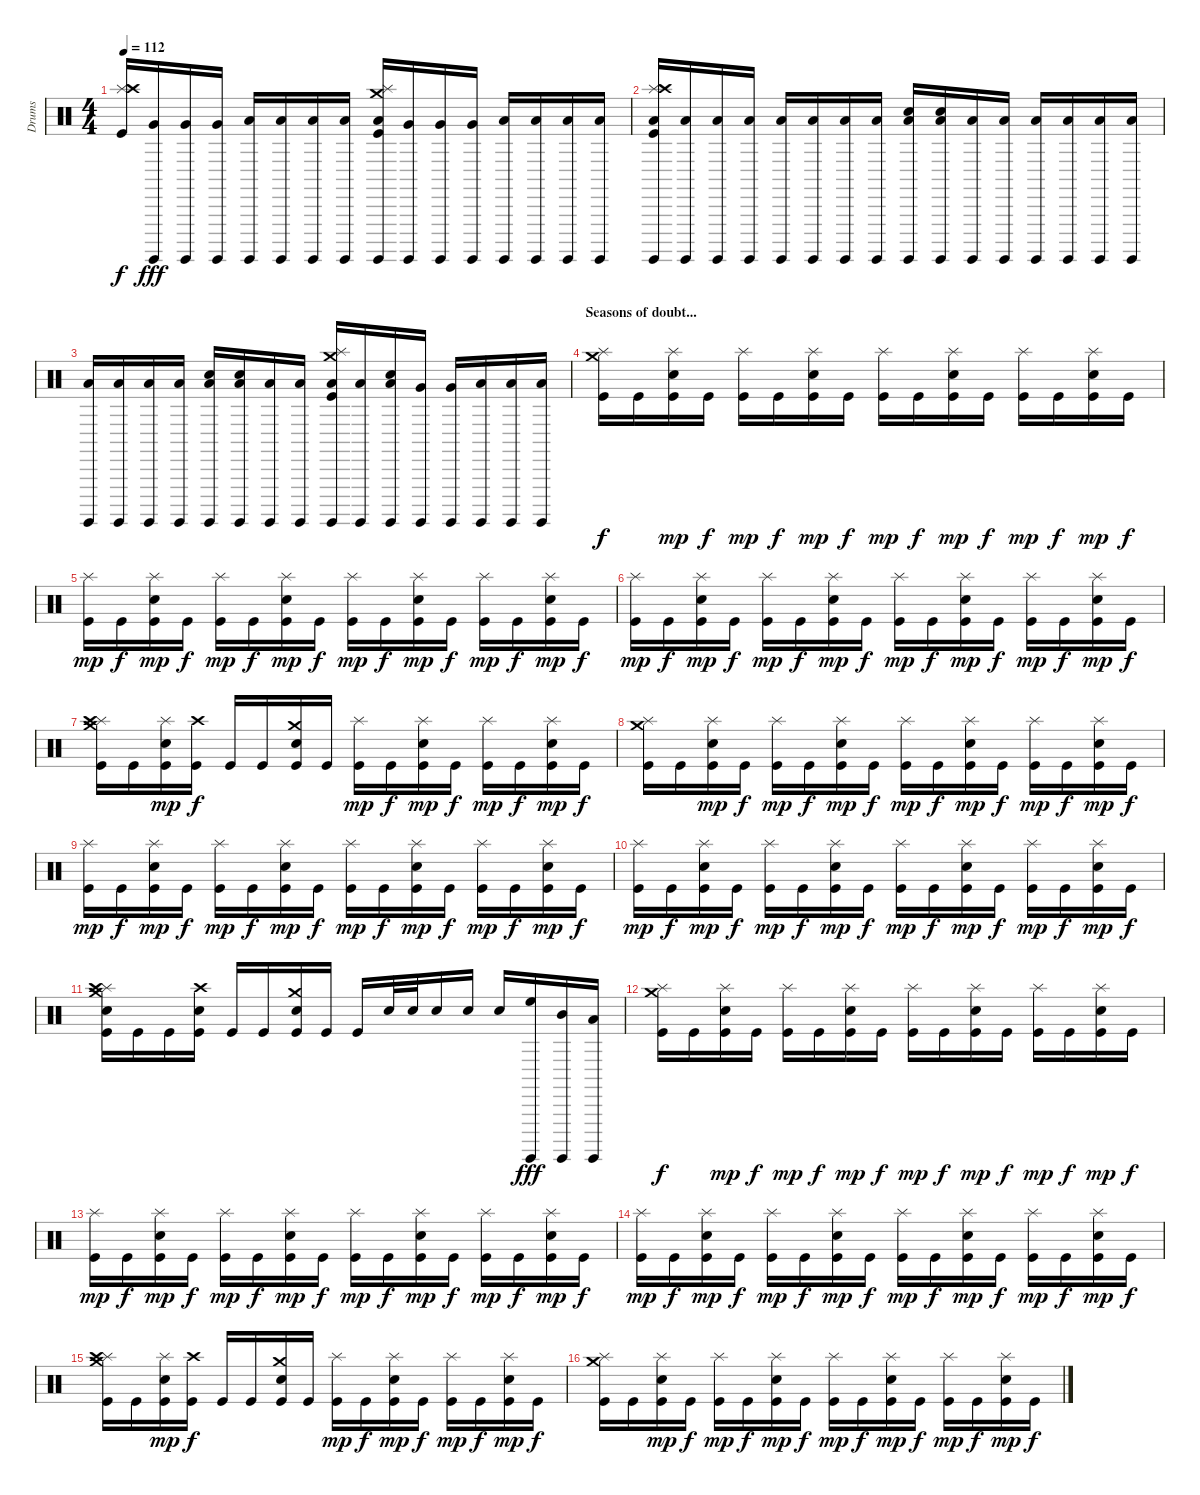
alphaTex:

\track ("Drums" "Drums") {instrument percussion}
\staff {score}
\articulation defaults
\ts (4 4)
\tempo 112
\clef neutral
\ks c
("Splash (hit)" "Crash high (hit)" "Kick (hit)").16{dy f} ("Surdo (hit)" "Very Low Tom (hit)").16{dy fff} ("Surdo (hit)" "Very Low Tom (hit)").16 ("Surdo (hit)" "Very Low Tom (hit)").16 ("Surdo (hit)" "Low Floor Tom (hit)").16 ("Surdo (hit)" "Low Floor Tom (hit)").16 ("Surdo (hit)" "Low Floor Tom (hit)").16 ("Surdo (hit)" "Low Floor Tom (hit)").16 ("Crash medium (hit)" "Splash (hit)" "Surdo (hit)" "Low Floor Tom (hit)" "Kick (hit)").16 ("Surdo (hit)" "Very Low Tom (hit)").16 ("Surdo (hit)" "Very Low Tom (hit)").16 ("Surdo (hit)" "Very Low Tom (hit)").16 ("Surdo (hit)" "Low Floor Tom (hit)").16 ("Surdo (hit)" "Low Floor Tom (hit)").16 ("Surdo (hit)" "Low Floor Tom (hit)").16 ("Surdo (hit)" "Low Floor Tom (hit)").16 |
("Splash (hit)" "Crash high (hit)" "Low Floor Tom (hit)" "Surdo (hit)" "Kick (hit)").16 ("Surdo (hit)" "Low Floor Tom (hit)").16 ("Surdo (hit)" "Low Floor Tom (hit)").16 ("Surdo (hit)" "Low Floor Tom (hit)").16 ("Surdo (hit)" "Low Floor Tom (hit)").16 ("Surdo (hit)" "Low Floor Tom (hit)").16 ("Surdo (hit)" "Low Floor Tom (hit)").16 ("Surdo (hit)" "Low Floor Tom (hit)").16 ("Surdo (hit)" "Low Floor Tom (hit)" "Electric Snare (hit)").16 ("Surdo (hit)" "Low Floor Tom (hit)" "Electric Snare (hit)").16 ("Surdo (hit)" "Low Floor Tom (hit)").16 ("Surdo (hit)" "Low Floor Tom (hit)").16 ("Surdo (hit)" "Low Floor Tom (hit)").16 ("Surdo (hit)" "Low Floor Tom (hit)").16 ("Surdo (hit)" "Low Floor Tom (hit)").16 ("Surdo (hit)" "Low Floor Tom (hit)").16 |
("Surdo (hit)" "Low Floor Tom (hit)").16 ("Surdo (hit)" "Low Floor Tom (hit)").16 ("Surdo (hit)" "Low Floor Tom (hit)").16 ("Surdo (hit)" "Low Floor Tom (hit)").16 ("Surdo (hit)" "Low Floor Tom (hit)" "Electric Snare (hit)").16 ("Surdo (hit)" "Low Floor Tom (hit)" "Electric Snare (hit)").16 ("Surdo (hit)" "Low Floor Tom (hit)").16 ("Surdo (hit)" "Low Floor Tom (hit)").16 ("Crash medium (hit)" "Splash (hit)" "Surdo (hit)" "Low Floor Tom (hit)" "Kick (hit)").16 ("Surdo (hit)" "Low Floor Tom (hit)").16 ("Surdo (hit)" "Low Floor Tom (hit)" "Electric Snare (hit)").16 ("Surdo (hit)" "Very Low Tom (hit)").16 ("Surdo (hit)" "Very Low Tom (hit)").16 ("Surdo (hit)" "Low Floor Tom (hit)").16 ("Surdo (hit)" "Low Floor Tom (hit)").16 ("Surdo (hit)" "Low Floor Tom (hit)").16 |
\section ("" "Seasons of doubt...")
("Crash medium (hit)" "Splash (hit)" "Kick (hit)").16{dy f} "Kick (hit)".16 ("Splash (hit)" "Electric Snare (hit)" "Kick (hit)").16{dy mp} "Kick (hit)".16{dy f} ("Splash (hit)" "Kick (hit)").16{dy mp} "Kick (hit)".16{dy f} ("Splash (hit)" "Electric Snare (hit)" "Kick (hit)").16{dy mp} "Kick (hit)".16{dy f} ("Splash (hit)" "Kick (hit)").16{dy mp} "Kick (hit)".16{dy f} ("Splash (hit)" "Electric Snare (hit)" "Kick (hit)").16{dy mp} "Kick (hit)".16{dy f} ("Splash (hit)" "Kick (hit)").16{dy mp} "Kick (hit)".16{dy f} ("Splash (hit)" "Electric Snare (hit)" "Kick (hit)").16{dy mp} "Kick (hit)".16{dy f} |
("Splash (hit)" "Kick (hit)").16{dy mp} "Kick (hit)".16{dy f} ("Splash (hit)" "Electric Snare (hit)" "Kick (hit)").16{dy mp} "Kick (hit)".16{dy f} ("Splash (hit)" "Kick (hit)").16{dy mp} "Kick (hit)".16{dy f} ("Splash (hit)" "Electric Snare (hit)" "Kick (hit)").16{dy mp} "Kick (hit)".16{dy f} ("Splash (hit)" "Kick (hit)").16{dy mp} "Kick (hit)".16{dy f} ("Splash (hit)" "Electric Snare (hit)" "Kick (hit)").16{dy mp} "Kick (hit)".16{dy f} ("Splash (hit)" "Kick (hit)").16{dy mp} "Kick (hit)".16{dy f} ("Splash (hit)" "Electric Snare (hit)" "Kick (hit)").16{dy mp} "Kick (hit)".16{dy f} |
("Splash (hit)" "Kick (hit)").16{dy mp} "Kick (hit)".16{dy f} ("Splash (hit)" "Electric Snare (hit)" "Kick (hit)").16{dy mp} "Kick (hit)".16{dy f} ("Splash (hit)" "Kick (hit)").16{dy mp} "Kick (hit)".16{dy f} ("Splash (hit)" "Electric Snare (hit)" "Kick (hit)").16{dy mp} "Kick (hit)".16{dy f} ("Splash (hit)" "Kick (hit)").16{dy mp} "Kick (hit)".16{dy f} ("Splash (hit)" "Electric Snare (hit)" "Kick (hit)").16{dy mp} "Kick (hit)".16{dy f} ("Splash (hit)" "Kick (hit)").16{dy mp} "Kick (hit)".16{dy f} ("Splash (hit)" "Electric Snare (hit)" "Kick (hit)").16{dy mp} "Kick (hit)".16{dy f} |
("Crash medium (hit)" "Splash (hit)" "Crash high (hit)" "Kick (hit)").16 "Kick (hit)".16 ("Splash (hit)" "Electric Snare (hit)" "Kick (hit)").16{dy mp} ("Crash high (hit)" "Kick (hit)").16{dy f} "Kick (hit)".16 "Kick (hit)".16 ("Crash medium (hit)" "Electric Snare (hit)" "Kick (hit)").16 "Kick (hit)".16 ("Splash (hit)" "Kick (hit)").16{dy mp} "Kick (hit)".16{dy f} ("Splash (hit)" "Electric Snare (hit)" "Kick (hit)").16{dy mp} "Kick (hit)".16{dy f} ("Splash (hit)" "Kick (hit)").16{dy mp} "Kick (hit)".16{dy f} ("Splash (hit)" "Electric Snare (hit)" "Kick (hit)").16{dy mp} "Kick (hit)".16{dy f} |
("Crash medium (hit)" "Splash (hit)" "Kick (hit)").16 "Kick (hit)".16 ("Splash (hit)" "Electric Snare (hit)" "Kick (hit)").16{dy mp} "Kick (hit)".16{dy f} ("Splash (hit)" "Kick (hit)").16{dy mp} "Kick (hit)".16{dy f} ("Splash (hit)" "Electric Snare (hit)" "Kick (hit)").16{dy mp} "Kick (hit)".16{dy f} ("Splash (hit)" "Kick (hit)").16{dy mp} "Kick (hit)".16{dy f} ("Splash (hit)" "Electric Snare (hit)" "Kick (hit)").16{dy mp} "Kick (hit)".16{dy f} ("Splash (hit)" "Kick (hit)").16{dy mp} "Kick (hit)".16{dy f} ("Splash (hit)" "Electric Snare (hit)" "Kick (hit)").16{dy mp} "Kick (hit)".16{dy f} |
("Splash (hit)" "Kick (hit)").16{dy mp} "Kick (hit)".16{dy f} ("Splash (hit)" "Electric Snare (hit)" "Kick (hit)").16{dy mp} "Kick (hit)".16{dy f} ("Splash (hit)" "Kick (hit)").16{dy mp} "Kick (hit)".16{dy f} ("Splash (hit)" "Electric Snare (hit)" "Kick (hit)").16{dy mp} "Kick (hit)".16{dy f} ("Splash (hit)" "Kick (hit)").16{dy mp} "Kick (hit)".16{dy f} ("Splash (hit)" "Electric Snare (hit)" "Kick (hit)").16{dy mp} "Kick (hit)".16{dy f} ("Splash (hit)" "Kick (hit)").16{dy mp} "Kick (hit)".16{dy f} ("Splash (hit)" "Electric Snare (hit)" "Kick (hit)").16{dy mp} "Kick (hit)".16{dy f} |
("Splash (hit)" "Kick (hit)").16{dy mp} "Kick (hit)".16{dy f} ("Splash (hit)" "Electric Snare (hit)" "Kick (hit)").16{dy mp} "Kick (hit)".16{dy f} ("Splash (hit)" "Kick (hit)").16{dy mp} "Kick (hit)".16{dy f} ("Splash (hit)" "Electric Snare (hit)" "Kick (hit)").16{dy mp} "Kick (hit)".16{dy f} ("Splash (hit)" "Kick (hit)").16{dy mp} "Kick (hit)".16{dy f} ("Splash (hit)" "Electric Snare (hit)" "Kick (hit)").16{dy mp} "Kick (hit)".16{dy f} ("Splash (hit)" "Kick (hit)").16{dy mp} "Kick (hit)".16{dy f} ("Splash (hit)" "Electric Snare (hit)" "Kick (hit)").16{dy mp} "Kick (hit)".16{dy f} |
("Crash medium (hit)" "Splash (hit)" "Crash high (hit)" "Electric Snare (hit)" "Kick (hit)").16 "Kick (hit)".16 "Kick (hit)".16 ("Crash high (hit)" "Electric Snare (hit)" "Kick (hit)").16 "Kick (hit)".16 "Kick (hit)".16 ("Crash medium (hit)" "Electric Snare (hit)" "Kick (hit)").16 "Kick (hit)".16 "Kick (hit)".16 "Electric Snare (hit)".32 "Electric Snare (hit)".32 "Electric Snare (hit)".16 "Electric Snare (hit)".16 "Electric Snare (hit)".16 ("Surdo (hit)" "High Floor Tom (hit)").16{dy fff} ("Surdo (hit)" "Mid Tom (hit)").16 ("Surdo (hit)" "Low Tom (hit)").16 |
("Crash medium (hit)" "Splash (hit)" "Kick (hit)").16{dy f} "Kick (hit)".16 ("Splash (hit)" "Electric Snare (hit)" "Kick (hit)").16{dy mp} "Kick (hit)".16{dy f} ("Splash (hit)" "Kick (hit)").16{dy mp} "Kick (hit)".16{dy f} ("Splash (hit)" "Electric Snare (hit)" "Kick (hit)").16{dy mp} "Kick (hit)".16{dy f} ("Splash (hit)" "Kick (hit)").16{dy mp} "Kick (hit)".16{dy f} ("Splash (hit)" "Electric Snare (hit)" "Kick (hit)").16{dy mp} "Kick (hit)".16{dy f} ("Splash (hit)" "Kick (hit)").16{dy mp} "Kick (hit)".16{dy f} ("Splash (hit)" "Electric Snare (hit)" "Kick (hit)").16{dy mp} "Kick (hit)".16{dy f} |
("Splash (hit)" "Kick (hit)").16{dy mp} "Kick (hit)".16{dy f} ("Splash (hit)" "Electric Snare (hit)" "Kick (hit)").16{dy mp} "Kick (hit)".16{dy f} ("Splash (hit)" "Kick (hit)").16{dy mp} "Kick (hit)".16{dy f} ("Splash (hit)" "Electric Snare (hit)" "Kick (hit)").16{dy mp} "Kick (hit)".16{dy f} ("Splash (hit)" "Kick (hit)").16{dy mp} "Kick (hit)".16{dy f} ("Splash (hit)" "Electric Snare (hit)" "Kick (hit)").16{dy mp} "Kick (hit)".16{dy f} ("Splash (hit)" "Kick (hit)").16{dy mp} "Kick (hit)".16{dy f} ("Splash (hit)" "Electric Snare (hit)" "Kick (hit)").16{dy mp} "Kick (hit)".16{dy f} |
("Splash (hit)" "Kick (hit)").16{dy mp} "Kick (hit)".16{dy f} ("Splash (hit)" "Electric Snare (hit)" "Kick (hit)").16{dy mp} "Kick (hit)".16{dy f} ("Splash (hit)" "Kick (hit)").16{dy mp} "Kick (hit)".16{dy f} ("Splash (hit)" "Electric Snare (hit)" "Kick (hit)").16{dy mp} "Kick (hit)".16{dy f} ("Splash (hit)" "Kick (hit)").16{dy mp} "Kick (hit)".16{dy f} ("Splash (hit)" "Electric Snare (hit)" "Kick (hit)").16{dy mp} "Kick (hit)".16{dy f} ("Splash (hit)" "Kick (hit)").16{dy mp} "Kick (hit)".16{dy f} ("Splash (hit)" "Electric Snare (hit)" "Kick (hit)").16{dy mp} "Kick (hit)".16{dy f} |
("Crash medium (hit)" "Splash (hit)" "Crash high (hit)" "Kick (hit)").16 "Kick (hit)".16 ("Splash (hit)" "Electric Snare (hit)" "Kick (hit)").16{dy mp} ("Crash high (hit)" "Kick (hit)").16{dy f} "Kick (hit)".16 "Kick (hit)".16 ("Crash medium (hit)" "Electric Snare (hit)" "Kick (hit)").16 "Kick (hit)".16 ("Splash (hit)" "Kick (hit)").16{dy mp} "Kick (hit)".16{dy f} ("Splash (hit)" "Electric Snare (hit)" "Kick (hit)").16{dy mp} "Kick (hit)".16{dy f} ("Splash (hit)" "Kick (hit)").16{dy mp} "Kick (hit)".16{dy f} ("Splash (hit)" "Electric Snare (hit)" "Kick (hit)").16{dy mp} "Kick (hit)".16{dy f} |
("Crash medium (hit)" "Splash (hit)" "Kick (hit)").16 "Kick (hit)".16 ("Splash (hit)" "Electric Snare (hit)" "Kick (hit)").16{dy mp} "Kick (hit)".16{dy f} ("Splash (hit)" "Kick (hit)").16{dy mp} "Kick (hit)".16{dy f} ("Splash (hit)" "Electric Snare (hit)" "Kick (hit)").16{dy mp} "Kick (hit)".16{dy f} ("Splash (hit)" "Kick (hit)").16{dy mp} "Kick (hit)".16{dy f} ("Splash (hit)" "Electric Snare (hit)" "Kick (hit)").16{dy mp} "Kick (hit)".16{dy f} ("Splash (hit)" "Kick (hit)").16{dy mp} "Kick (hit)".16{dy f} ("Splash (hit)" "Electric Snare (hit)" "Kick (hit)").16{dy mp} "Kick (hit)".16{dy f}
